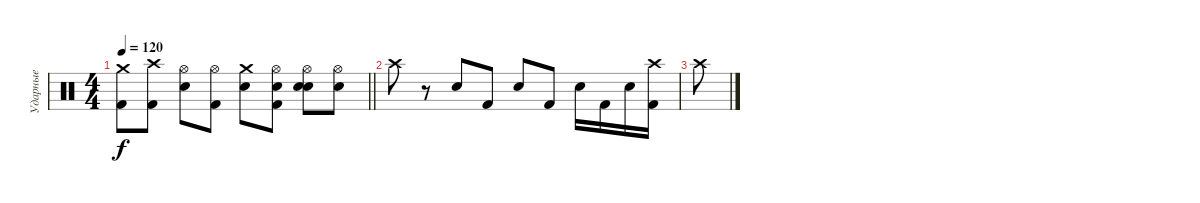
\track ("Ударные" "Ударные") {instrument percussion}
\staff {score}
\articulation defaults
\ts (4 4)
\tempo 120
\clef neutral
\barLineRight lightlight
\ks c
("Crash medium (hit)" "Kick (hit) 2").8{dy f} ("Crash high (hit)" "Kick (hit) 2").8 ("Hi-Hat (open)" "Electric Snare (hit)").8 ("Hi-Hat (open)" "Kick (hit) 2").8 ("Crash medium (hit)" "Electric Snare (hit)").8 ("Hi-Hat (open)" "Electric Snare (hit)" "Kick (hit) 2").8 ("Hi-Hat (open)" "Electric Snare (hit)" "Electric Snare (hit)").8 ("Hi-Hat (open)" "Electric Snare (hit)").8 |
"Crash high (hit)".8 r.8 "Electric Snare (hit)".8 "Kick (hit) 2".8 "Electric Snare (hit)".8 "Kick (hit) 2".8 "Electric Snare (hit)".16 "Kick (hit) 2".16 "Electric Snare (hit)".16 ("Crash high (hit)" "Kick (hit) 2").16 |
"Crash high (hit)".8
